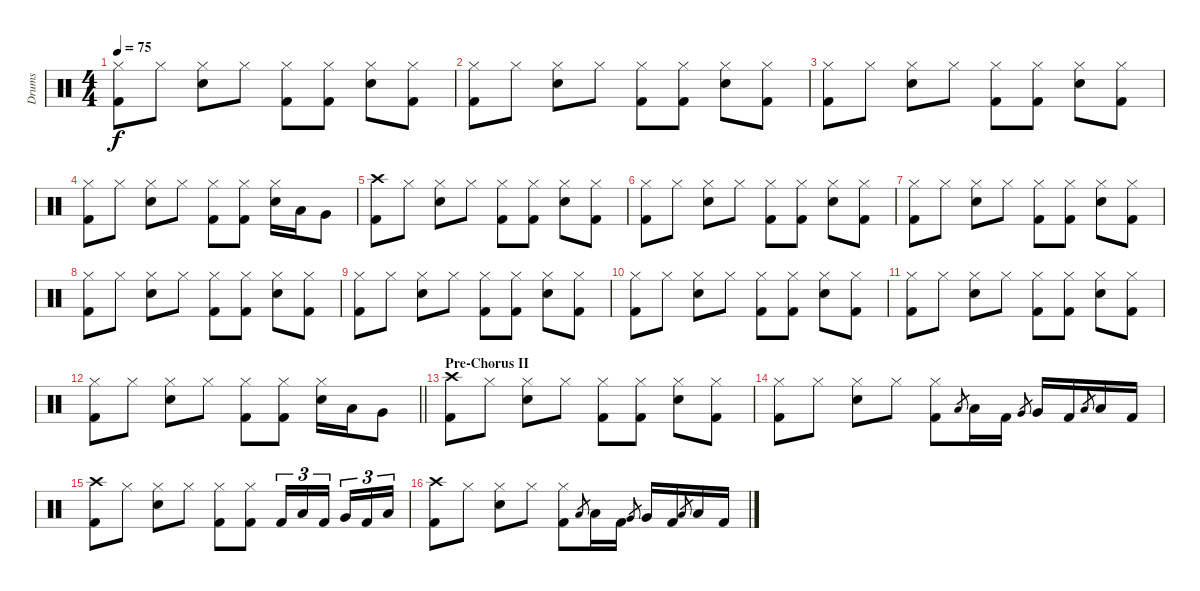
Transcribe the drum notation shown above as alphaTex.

\track ("Drums" "Drums") {instrument percussion}
\staff {score}
\articulation defaults
\ts (4 4)
\tempo 75
\clef neutral
\ks c
("Hi-Hat (closed)" "Kick (hit) 2").8{dy f} "Hi-Hat (closed)".8 ("Hi-Hat (closed)" "Snare (hit) 2").8 "Hi-Hat (closed)".8 ("Hi-Hat (closed)" "Kick (hit) 2").8 ("Hi-Hat (closed)" "Kick (hit) 2").8 ("Hi-Hat (closed)" "Snare (hit) 2").8 ("Hi-Hat (closed)" "Kick (hit) 2").8 |
("Hi-Hat (closed)" "Kick (hit) 2").8 "Hi-Hat (closed)".8 ("Hi-Hat (closed)" "Snare (hit) 2").8 "Hi-Hat (closed)".8 ("Hi-Hat (closed)" "Kick (hit) 2").8 ("Hi-Hat (closed)" "Kick (hit) 2").8 ("Hi-Hat (closed)" "Snare (hit) 2").8 ("Hi-Hat (closed)" "Kick (hit) 2").8 |
("Hi-Hat (closed)" "Kick (hit) 2").8 "Hi-Hat (closed)".8 ("Hi-Hat (closed)" "Snare (hit) 2").8 "Hi-Hat (closed)".8 ("Hi-Hat (closed)" "Kick (hit) 2").8 ("Hi-Hat (closed)" "Kick (hit) 2").8 ("Hi-Hat (closed)" "Snare (hit) 2").8 ("Hi-Hat (closed)" "Kick (hit) 2").8 |
("Hi-Hat (closed)" "Kick (hit) 2").8 "Hi-Hat (closed)".8 ("Hi-Hat (closed)" "Snare (hit) 2").8 "Hi-Hat (closed)".8 ("Hi-Hat (closed)" "Kick (hit) 2").8 ("Hi-Hat (closed)" "Kick (hit) 2").8 ("Hi-Hat (closed)" "Snare (hit) 2").16 "Low Tom (hit)".16 "Very Low Tom (hit)".8 |
("Crash high (hit)" "Kick (hit) 2").8 "Hi-Hat (closed)".8 ("Hi-Hat (closed)" "Snare (hit) 2").8 "Hi-Hat (closed)".8 ("Hi-Hat (closed)" "Kick (hit) 2").8 ("Hi-Hat (closed)" "Kick (hit) 2").8 ("Hi-Hat (closed)" "Snare (hit) 2").8 ("Hi-Hat (closed)" "Kick (hit) 2").8 |
("Hi-Hat (closed)" "Kick (hit) 2").8 "Hi-Hat (closed)".8 ("Hi-Hat (closed)" "Snare (hit) 2").8 "Hi-Hat (closed)".8 ("Hi-Hat (closed)" "Kick (hit) 2").8 ("Hi-Hat (closed)" "Kick (hit) 2").8 ("Hi-Hat (closed)" "Snare (hit) 2").8 ("Hi-Hat (closed)" "Kick (hit) 2").8 |
("Hi-Hat (closed)" "Kick (hit) 2").8 "Hi-Hat (closed)".8 ("Hi-Hat (closed)" "Snare (hit) 2").8 "Hi-Hat (closed)".8 ("Hi-Hat (closed)" "Kick (hit) 2").8 ("Hi-Hat (closed)" "Kick (hit) 2").8 ("Hi-Hat (closed)" "Snare (hit) 2").8 ("Hi-Hat (closed)" "Kick (hit) 2").8 |
("Hi-Hat (closed)" "Kick (hit) 2").8 "Hi-Hat (closed)".8 ("Hi-Hat (closed)" "Snare (hit) 2").8 "Hi-Hat (closed)".8 ("Hi-Hat (closed)" "Kick (hit) 2").8 ("Hi-Hat (closed)" "Kick (hit) 2").8 ("Hi-Hat (closed)" "Snare (hit) 2").8 ("Hi-Hat (closed)" "Kick (hit) 2").8 |
("Hi-Hat (closed)" "Kick (hit) 2").8 "Hi-Hat (closed)".8 ("Hi-Hat (closed)" "Snare (hit) 2").8 "Hi-Hat (closed)".8 ("Hi-Hat (closed)" "Kick (hit) 2").8 ("Hi-Hat (closed)" "Kick (hit) 2").8 ("Hi-Hat (closed)" "Snare (hit) 2").8 ("Hi-Hat (closed)" "Kick (hit) 2").8 |
("Hi-Hat (closed)" "Kick (hit) 2").8 "Hi-Hat (closed)".8 ("Hi-Hat (closed)" "Snare (hit) 2").8 "Hi-Hat (closed)".8 ("Hi-Hat (closed)" "Kick (hit) 2").8 ("Hi-Hat (closed)" "Kick (hit) 2").8 ("Hi-Hat (closed)" "Snare (hit) 2").8 ("Hi-Hat (closed)" "Kick (hit) 2").8 |
("Hi-Hat (closed)" "Kick (hit) 2").8 "Hi-Hat (closed)".8 ("Hi-Hat (closed)" "Snare (hit) 2").8 "Hi-Hat (closed)".8 ("Hi-Hat (closed)" "Kick (hit) 2").8 ("Hi-Hat (closed)" "Kick (hit) 2").8 ("Hi-Hat (closed)" "Snare (hit) 2").8 ("Hi-Hat (closed)" "Kick (hit) 2").8 |
\barLineRight lightlight
("Hi-Hat (closed)" "Kick (hit) 2").8 "Hi-Hat (closed)".8 ("Hi-Hat (closed)" "Snare (hit) 2").8 "Hi-Hat (closed)".8 ("Hi-Hat (closed)" "Kick (hit) 2").8 ("Hi-Hat (closed)" "Kick (hit) 2").8 ("Hi-Hat (closed)" "Snare (hit) 2").16 "Low Tom (hit)".16 "Very Low Tom (hit)".8 |
\section ("" "Pre-Chorus II")
("Crash high (hit)" "Kick (hit) 2").8 "Hi-Hat (closed)".8 ("Hi-Hat (closed)" "Snare (hit) 2").8 "Hi-Hat (closed)".8 ("Hi-Hat (closed)" "Kick (hit) 2").8 ("Hi-Hat (closed)" "Kick (hit) 2").8 ("Hi-Hat (closed)" "Snare (hit) 2").8 ("Hi-Hat (closed)" "Kick (hit) 2").8 |
("Hi-Hat (closed)" "Kick (hit) 2").8 "Hi-Hat (closed)".8 ("Hi-Hat (closed)" "Snare (hit) 2").8 "Hi-Hat (closed)".8 ("Hi-Hat (closed)" "Kick (hit) 2").8 "Low Tom (hit)".8{gr} "Low Tom (hit)".16 "Kick (hit) 2".16 "Very Low Tom (hit)".8{gr} "Very Low Tom (hit)".16 "Kick (hit) 2".16 "Low Floor Tom (hit)".8{gr} "Low Floor Tom (hit)".16 "Kick (hit) 2".16 |
("Crash high (hit)" "Kick (hit) 2").8 "Hi-Hat (closed)".8 ("Hi-Hat (closed)" "Snare (hit) 2").8 "Hi-Hat (closed)".8 ("Hi-Hat (closed)" "Kick (hit) 2").8 ("Hi-Hat (closed)" "Kick (hit) 2").8 "Kick (hit) 2".16{tu (3 2)} "Low Tom (hit)".16{tu (3 2)} "Kick (hit) 2".16{tu (3 2) beam splitsecondary} "Very Low Tom (hit)".16{tu (3 2)} "Kick (hit) 2".16{tu (3 2)} "Low Floor Tom (hit)".16{tu (3 2)} |
("Crash high (hit)" "Kick (hit) 2").8 "Hi-Hat (closed)".8 ("Hi-Hat (closed)" "Snare (hit) 2").8 "Hi-Hat (closed)".8 ("Hi-Hat (closed)" "Kick (hit) 2").8 "Low Tom (hit)".8{gr} "Low Tom (hit)".16 "Kick (hit) 2".16 "Very Low Tom (hit)".8{gr} "Very Low Tom (hit)".16 "Kick (hit) 2".16 "Low Floor Tom (hit)".8{gr} "Low Floor Tom (hit)".16 "Kick (hit) 2".16
